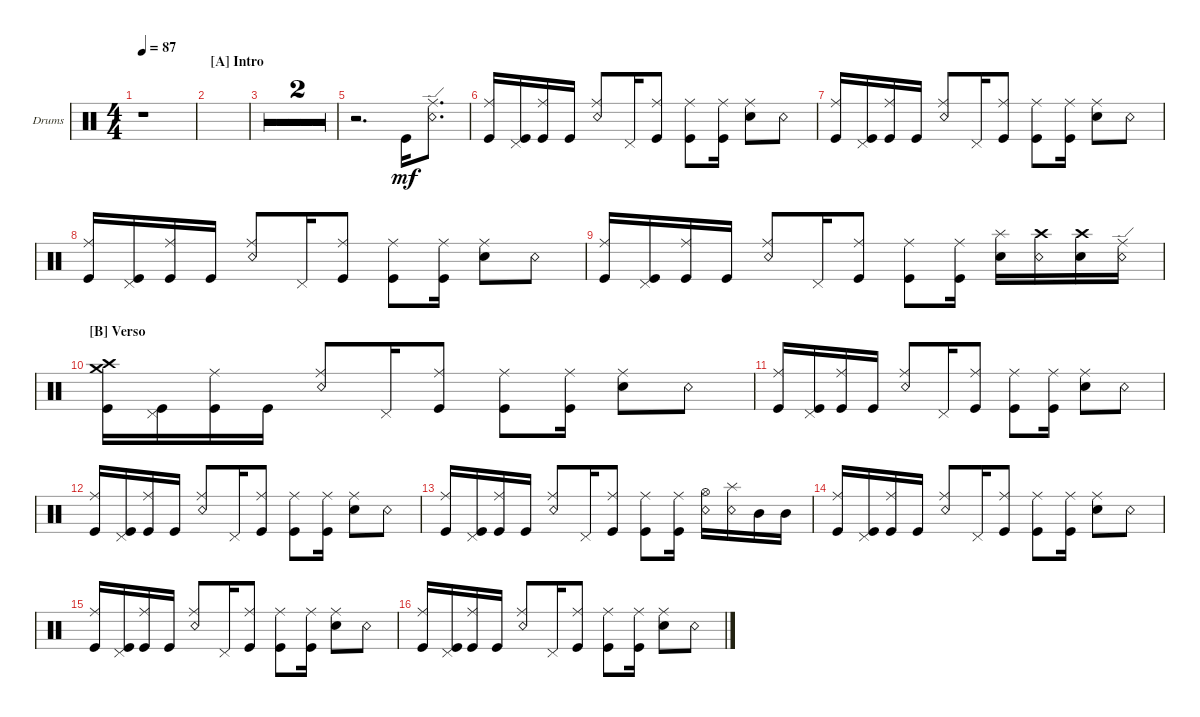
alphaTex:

\defaultSystemsLayout 4
\bracketExtendMode groupsimilarinstruments
\firstSystemTrackNameOrientation horizontal
\otherSystemsTrackNameOrientation horizontal
\track ("Drumkit" "Drums") {multiBarRest instrument percussion}
\staff {score}
\articulation defaults
\ts (4 4)
\tempo 87
\clef neutral
\ks c
r.1{dy mf} |
\section ("A" "Intro")
|
|
|
r.2{d} "Kick (hit)".16 ("Snare (rim shot)" "Ride (edge)").8{d} |
("Kick (hit)" "Ride (middle)").16 ("Kick (hit)" "Pedal Hi-Hat (hit)").16 ("Kick (hit)" "Ride (middle)").16 "Kick (hit)".16 ("Ride (middle)" "Snare (rim shot)").8 "Pedal Hi-Hat (hit)".16 ("Ride (middle)" "Kick (hit)").8 ("Ride (middle)" "Kick (hit)").8 ("Ride (middle)" "Kick (hit)").16 ("Ride (middle)" "Snare (hit) 2").8 "Snare (rim shot)".8 |
("Kick (hit)" "Ride (middle)").16 ("Kick (hit)" "Pedal Hi-Hat (hit)").16 ("Kick (hit)" "Ride (middle)").16 "Kick (hit)".16 ("Ride (middle)" "Snare (rim shot)").8 "Pedal Hi-Hat (hit)".16 ("Ride (middle)" "Kick (hit)").8 ("Ride (middle)" "Kick (hit)").8 ("Ride (middle)" "Kick (hit)").16 ("Ride (middle)" "Snare (hit) 2").8 "Snare (rim shot)".8 |
("Kick (hit)" "Ride (middle)").16 ("Kick (hit)" "Pedal Hi-Hat (hit)").16 ("Kick (hit)" "Ride (middle)").16 "Kick (hit)".16 ("Ride (middle)" "Snare (rim shot)").8 "Pedal Hi-Hat (hit)".16 ("Ride (middle)" "Kick (hit)").8 ("Ride (middle)" "Kick (hit)").8 ("Ride (middle)" "Kick (hit)").16 ("Ride (middle)" "Snare (hit) 2").8 "Snare (rim shot)".8 |
("Kick (hit)" "Ride (middle)").16 ("Kick (hit)" "Pedal Hi-Hat (hit)").16 ("Kick (hit)" "Ride (middle)").16 "Kick (hit)".16 ("Ride (middle)" "Snare (rim shot)").8 "Pedal Hi-Hat (hit)".16 ("Ride (middle)" "Kick (hit)").8 ("Ride (middle)" "Kick (hit)").8 ("Ride (middle)" "Kick (hit)").16 ("Snare (hit) 2" "Splash (hit)").16 ("Snare (rim shot)" "Crash high (hit)").16 ("Snare (hit) 2" "Crash high (hit)").16 ("Snare (rim shot)" "Ride (edge)").16 |
\section ("B" "Verso")
("Kick (hit)" "Crash high (hit)" "Crash medium (hit)").16 ("Kick (hit)" "Pedal Hi-Hat (hit)").16 ("Kick (hit)" "Ride (middle)").16 "Kick (hit)".16 ("Ride (middle)" "Snare (rim shot)").8 "Pedal Hi-Hat (hit)".16 ("Ride (middle)" "Kick (hit)").8 ("Ride (middle)" "Kick (hit)").8 ("Ride (middle)" "Kick (hit)").16 ("Ride (middle)" "Snare (hit) 2").8 "Snare (rim shot)".8 |
("Kick (hit)" "Ride (middle)").16 ("Kick (hit)" "Pedal Hi-Hat (hit)").16 ("Kick (hit)" "Ride (middle)").16 "Kick (hit)".16 ("Ride (middle)" "Snare (rim shot)").8 "Pedal Hi-Hat (hit)".16 ("Ride (middle)" "Kick (hit)").8 ("Ride (middle)" "Kick (hit)").8 ("Ride (middle)" "Kick (hit)").16 ("Ride (middle)" "Snare (hit) 2").8 "Snare (rim shot)".8 |
("Kick (hit)" "Ride (middle)").16 ("Kick (hit)" "Pedal Hi-Hat (hit)").16 ("Kick (hit)" "Ride (middle)").16 "Kick (hit)".16 ("Ride (middle)" "Snare (rim shot)").8 "Pedal Hi-Hat (hit)".16 ("Ride (middle)" "Kick (hit)").8 ("Ride (middle)" "Kick (hit)").8 ("Ride (middle)" "Kick (hit)").16 ("Ride (middle)" "Snare (hit) 2").8 "Snare (rim shot)".8 |
("Kick (hit)" "Ride (middle)").16 ("Kick (hit)" "Pedal Hi-Hat (hit)").16 ("Kick (hit)" "Ride (middle)").16 "Kick (hit)".16 ("Ride (middle)" "Snare (rim shot)").8 "Pedal Hi-Hat (hit)".16 ("Ride (middle)" "Kick (hit)").8 ("Ride (middle)" "Kick (hit)").8 ("Ride (middle)" "Kick (hit)").16 ("Snare (rim shot)" "Hi-Hat (open)").16 ("Splash (hit)" "Snare (rim shot)").16 "Mid Tom (hit)".16 "Mid Tom (hit)".16 |
("Kick (hit)" "Ride (middle)").16 ("Kick (hit)" "Pedal Hi-Hat (hit)").16 ("Kick (hit)" "Ride (middle)").16 "Kick (hit)".16 ("Ride (middle)" "Snare (rim shot)").8 "Pedal Hi-Hat (hit)".16 ("Ride (middle)" "Kick (hit)").8 ("Ride (middle)" "Kick (hit)").8 ("Ride (middle)" "Kick (hit)").16 ("Ride (middle)" "Snare (hit) 2").8 "Snare (rim shot)".8 |
("Kick (hit)" "Ride (middle)").16 ("Kick (hit)" "Pedal Hi-Hat (hit)").16 ("Kick (hit)" "Ride (middle)").16 "Kick (hit)".16 ("Ride (middle)" "Snare (rim shot)").8 "Pedal Hi-Hat (hit)".16 ("Ride (middle)" "Kick (hit)").8 ("Ride (middle)" "Kick (hit)").8 ("Ride (middle)" "Kick (hit)").16 ("Ride (middle)" "Snare (hit) 2").8 "Snare (rim shot)".8 |
("Kick (hit)" "Ride (middle)").16 ("Kick (hit)" "Pedal Hi-Hat (hit)").16 ("Kick (hit)" "Ride (middle)").16 "Kick (hit)".16 ("Ride (middle)" "Snare (rim shot)").8 "Pedal Hi-Hat (hit)".16 ("Ride (middle)" "Kick (hit)").8 ("Ride (middle)" "Kick (hit)").8 ("Ride (middle)" "Kick (hit)").16 ("Ride (middle)" "Snare (hit) 2").8 "Snare (rim shot)".8
